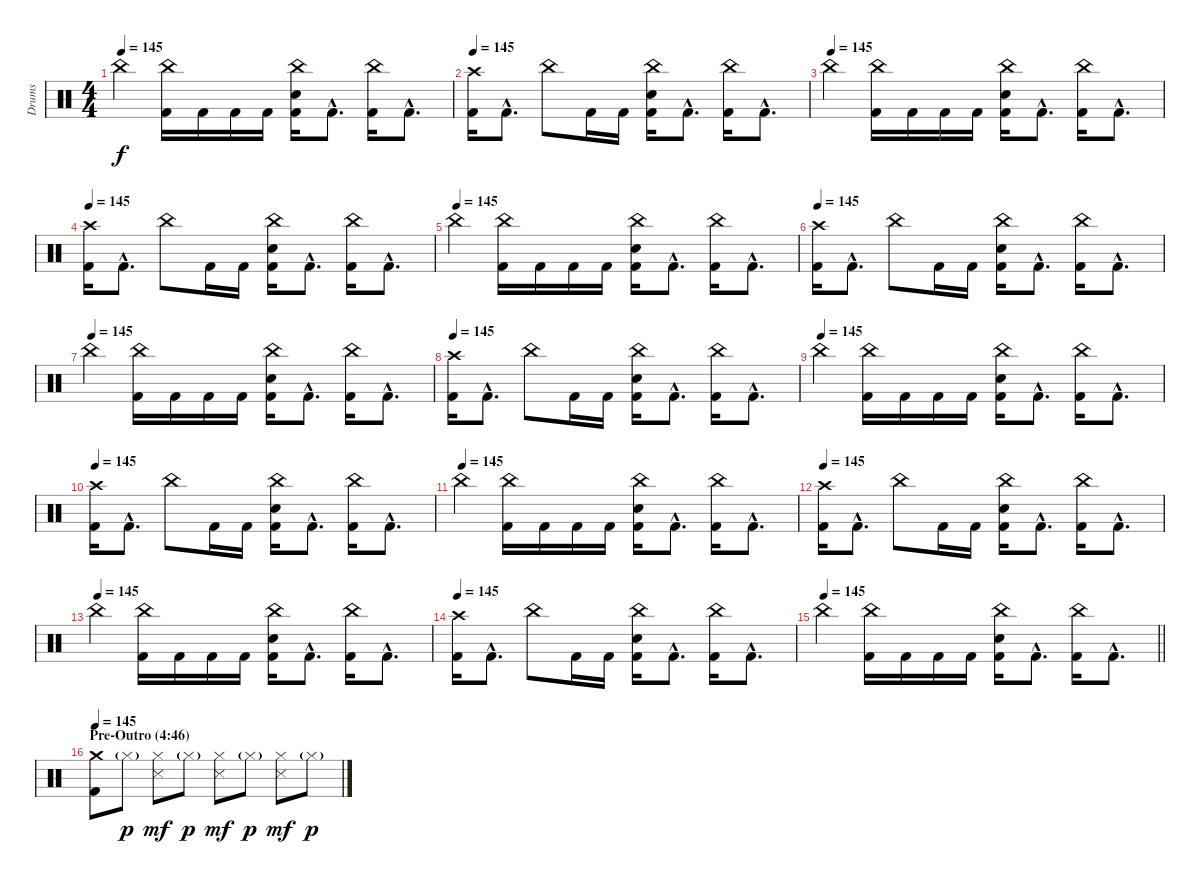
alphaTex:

\track ("Drums" "Drums") {instrument percussion}
\staff {score}
\articulation defaults
\ts (4 4)
\tempo 145
\clef neutral
\ks c "China (hit)".4{dy f}
("China (hit)" "Kick (hit) 2").16 "Kick (hit) 2".16 "Kick (hit) 2".16 "Kick (hit) 2".16 ("China (hit)" "Snare (hit) 2" "Kick (hit) 2").16 "Kick (hit) 2"{hac}.8{d} ("China (hit)" "Kick (hit) 2").16 "Kick (hit) 2"{hac}.8{d} |
\tempo 145
("Crash high (hit)" "Kick (hit) 2").16 "Kick (hit) 2"{hac}.8{d} "China (hit)".8 "Kick (hit) 2".16 "Kick (hit) 2".16 ("China (hit)" "Snare (hit) 2" "Kick (hit) 2").16 "Kick (hit) 2"{hac}.8{d} ("China (hit)" "Kick (hit) 2").16 "Kick (hit) 2"{hac}.8{d} |
\tempo (145)
"China (hit)".4 ("China (hit)" "Kick (hit) 2").16 "Kick (hit) 2".16 "Kick (hit) 2".16 "Kick (hit) 2".16 ("China (hit)" "Snare (hit) 2" "Kick (hit) 2").16 "Kick (hit) 2"{hac}.8{d} ("China (hit)" "Kick (hit) 2").16 "Kick (hit) 2"{hac}.8{d} |
\tempo 145
("Crash high (hit)" "Kick (hit) 2").16 "Kick (hit) 2"{hac}.8{d} "China (hit)".8 "Kick (hit) 2".16 "Kick (hit) 2".16 ("China (hit)" "Snare (hit) 2" "Kick (hit) 2").16 "Kick (hit) 2"{hac}.8{d} ("China (hit)" "Kick (hit) 2").16 "Kick (hit) 2"{hac}.8{d} |
\tempo (145)
"China (hit)".4 ("China (hit)" "Kick (hit) 2").16 "Kick (hit) 2".16 "Kick (hit) 2".16 "Kick (hit) 2".16 ("China (hit)" "Snare (hit) 2" "Kick (hit) 2").16 "Kick (hit) 2"{hac}.8{d} ("China (hit)" "Kick (hit) 2").16 "Kick (hit) 2"{hac}.8{d} |
\tempo 145
("Crash high (hit)" "Kick (hit) 2").16 "Kick (hit) 2"{hac}.8{d} "China (hit)".8 "Kick (hit) 2".16 "Kick (hit) 2".16 ("China (hit)" "Snare (hit) 2" "Kick (hit) 2").16 "Kick (hit) 2"{hac}.8{d} ("China (hit)" "Kick (hit) 2").16 "Kick (hit) 2"{hac}.8{d} |
\tempo (145)
"China (hit)".4 ("China (hit)" "Kick (hit) 2").16 "Kick (hit) 2".16 "Kick (hit) 2".16 "Kick (hit) 2".16 ("China (hit)" "Snare (hit) 2" "Kick (hit) 2").16 "Kick (hit) 2"{hac}.8{d} ("China (hit)" "Kick (hit) 2").16 "Kick (hit) 2"{hac}.8{d} |
\tempo 145
("Crash high (hit)" "Kick (hit) 2").16 "Kick (hit) 2"{hac}.8{d} "China (hit)".8 "Kick (hit) 2".16 "Kick (hit) 2".16 ("China (hit)" "Snare (hit) 2" "Kick (hit) 2").16 "Kick (hit) 2"{hac}.8{d} ("China (hit)" "Kick (hit) 2").16 "Kick (hit) 2"{hac}.8{d} |
\tempo (145)
"China (hit)".4 ("China (hit)" "Kick (hit) 2").16 "Kick (hit) 2".16 "Kick (hit) 2".16 "Kick (hit) 2".16 ("China (hit)" "Snare (hit) 2" "Kick (hit) 2").16 "Kick (hit) 2"{hac}.8{d} ("China (hit)" "Kick (hit) 2").16 "Kick (hit) 2"{hac}.8{d} |
\tempo 145
("Crash high (hit)" "Kick (hit) 2").16 "Kick (hit) 2"{hac}.8{d} "China (hit)".8 "Kick (hit) 2".16 "Kick (hit) 2".16 ("China (hit)" "Snare (hit) 2" "Kick (hit) 2").16 "Kick (hit) 2"{hac}.8{d} ("China (hit)" "Kick (hit) 2").16 "Kick (hit) 2"{hac}.8{d} |
\tempo (145)
"China (hit)".4 ("China (hit)" "Kick (hit) 2").16 "Kick (hit) 2".16 "Kick (hit) 2".16 "Kick (hit) 2".16 ("China (hit)" "Snare (hit) 2" "Kick (hit) 2").16 "Kick (hit) 2"{hac}.8{d} ("China (hit)" "Kick (hit) 2").16 "Kick (hit) 2"{hac}.8{d} |
\tempo 145
("Crash high (hit)" "Kick (hit) 2").16 "Kick (hit) 2"{hac}.8{d} "China (hit)".8 "Kick (hit) 2".16 "Kick (hit) 2".16 ("China (hit)" "Snare (hit) 2" "Kick (hit) 2").16 "Kick (hit) 2"{hac}.8{d} ("China (hit)" "Kick (hit) 2").16 "Kick (hit) 2"{hac}.8{d} |
\tempo (145)
"China (hit)".4 ("China (hit)" "Kick (hit) 2").16 "Kick (hit) 2".16 "Kick (hit) 2".16 "Kick (hit) 2".16 ("China (hit)" "Snare (hit) 2" "Kick (hit) 2").16 "Kick (hit) 2"{hac}.8{d} ("China (hit)" "Kick (hit) 2").16 "Kick (hit) 2"{hac}.8{d} |
\tempo 145
("Crash high (hit)" "Kick (hit) 2").16 "Kick (hit) 2"{hac}.8{d} "China (hit)".8 "Kick (hit) 2".16 "Kick (hit) 2".16 ("China (hit)" "Snare (hit) 2" "Kick (hit) 2").16 "Kick (hit) 2"{hac}.8{d} ("China (hit)" "Kick (hit) 2").16 "Kick (hit) 2"{hac}.8{d} |
\tempo 145
\barLineRight lightlight "China (hit)".4
("China (hit)" "Kick (hit) 2").16 "Kick (hit) 2".16 "Kick (hit) 2".16 "Kick (hit) 2".16 ("China (hit)" "Snare (hit) 2" "Kick (hit) 2").16 "Kick (hit) 2"{hac}.8{d} ("China (hit)" "Kick (hit) 2").16 "Kick (hit) 2"{hac}.8{d} |
\section ("" "Pre-Outro (4:46)")
\tempo 145
("Crash medium (hit)" "Kick (hit) 2").8 "Hi-Hat (closed)"{g}.8{dy p} ("Hi-Hat (closed)" "Snare (side stick) 3").8{dy mf} "Hi-Hat (closed)"{g}.8{dy p} ("Hi-Hat (closed)" "Snare (side stick) 3").8{dy mf} "Hi-Hat (closed)"{g}.8{dy p} ("Hi-Hat (closed)" "Snare (side stick) 3").8{dy mf} "Hi-Hat (closed)"{g}.8{dy p}
